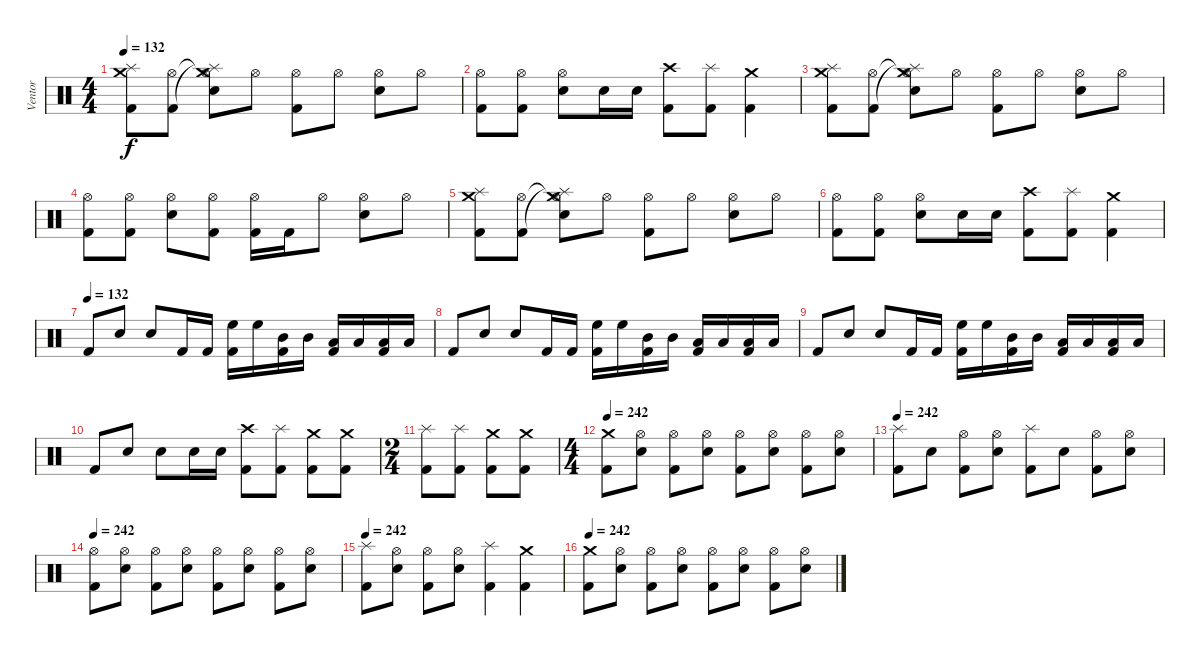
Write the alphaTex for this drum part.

\track ("Ventor" "Ventor") {instrument percussion}
\staff {score}
\articulation defaults
\ts (4 4)
\tempo 132
\clef neutral
\ks c
("Crash medium (hit)" "Splash (hit)" "Kick (hit) 2").8{dy f} ("Hi-Hat (open)" "Kick (hit) 2").8 ("Crash medium (hit)"{t} "Splash (hit)"{t} "Hi-Hat (open)" "Snare (hit) 2").8 "Hi-Hat (open)".8 ("Hi-Hat (open)" "Kick (hit) 2").8 "Hi-Hat (open)".8 ("Hi-Hat (open)" "Snare (hit) 2").8 "Hi-Hat (open)".8 |
("Hi-Hat (open)" "Kick (hit) 2").8 ("Hi-Hat (open)" "Kick (hit) 2").8 ("Hi-Hat (open)" "Snare (hit) 2").8 "Snare (hit) 2".16 "Snare (hit) 2".16 ("Crash high (hit)" "Kick (hit) 2").8 ("Splash (hit)" "Kick (hit) 2").8 ("Crash medium (hit)" "Kick (hit) 2").4 |
("Crash medium (hit)" "Splash (hit)" "Kick (hit) 2").8 ("Hi-Hat (open)" "Kick (hit) 2").8 ("Crash medium (hit)"{t} "Splash (hit)"{t} "Hi-Hat (open)" "Snare (hit) 2").8 "Hi-Hat (open)".8 ("Hi-Hat (open)" "Kick (hit) 2").8 "Hi-Hat (open)".8 ("Hi-Hat (open)" "Snare (hit) 2").8 "Hi-Hat (open)".8 |
("Hi-Hat (open)" "Kick (hit) 2").8 ("Hi-Hat (open)" "Kick (hit) 2").8 ("Hi-Hat (open)" "Snare (hit) 2").8 ("Hi-Hat (open)" "Kick (hit) 2").8 ("Hi-Hat (open)" "Kick (hit) 2").16 "Kick (hit) 2".16 "Hi-Hat (open)".8 ("Hi-Hat (open)" "Snare (hit) 2").8 "Hi-Hat (open)".8 |
("Crash medium (hit)" "Splash (hit)" "Kick (hit) 2").8 ("Hi-Hat (open)" "Kick (hit) 2").8 ("Crash medium (hit)"{t} "Splash (hit)"{t} "Hi-Hat (open)" "Snare (hit) 2").8 "Hi-Hat (open)".8 ("Hi-Hat (open)" "Kick (hit) 2").8 "Hi-Hat (open)".8 ("Hi-Hat (open)" "Snare (hit) 2").8 "Hi-Hat (open)".8 |
("Hi-Hat (open)" "Kick (hit) 2").8 ("Hi-Hat (open)" "Kick (hit) 2").8 ("Hi-Hat (open)" "Snare (hit) 2").8 "Snare (hit) 2".16 "Snare (hit) 2".16 ("Crash high (hit)" "Kick (hit) 2").8 ("Splash (hit)" "Kick (hit) 2").8 ("Crash medium (hit)" "Kick (hit) 2").4 |
\tempo (132)
"Kick (hit) 2".8 "Snare (hit) 2".8 "Snare (hit) 2".8 "Kick (hit) 2".16 "Kick (hit) 2".16 ("High Floor Tom (hit)" "Kick (hit) 2").16 "High Floor Tom (hit)".16 ("Mid Tom (hit)" "Kick (hit) 2").16 "Mid Tom (hit)".16 ("Low Tom (hit)" "Kick (hit) 2").16 "Low Tom (hit)".16 ("Low Floor Tom (hit)" "Kick (hit) 2").16 "Low Floor Tom (hit)".16 |
"Kick (hit) 2".8 "Snare (hit) 2".8 "Snare (hit) 2".8 "Kick (hit) 2".16 "Kick (hit) 2".16 ("High Floor Tom (hit)" "Kick (hit) 2").16 "High Floor Tom (hit)".16 ("Mid Tom (hit)" "Kick (hit) 2").16 "Mid Tom (hit)".16 ("Low Tom (hit)" "Kick (hit) 2").16 "Low Tom (hit)".16 ("Low Floor Tom (hit)" "Kick (hit) 2").16 "Low Floor Tom (hit)".16 |
"Kick (hit) 2".8 "Snare (hit) 2".8 "Snare (hit) 2".8 "Kick (hit) 2".16 "Kick (hit) 2".16 ("High Floor Tom (hit)" "Kick (hit) 2").16 "High Floor Tom (hit)".16 ("Mid Tom (hit)" "Kick (hit) 2").16 "Mid Tom (hit)".16 ("Low Tom (hit)" "Kick (hit) 2").16 "Low Tom (hit)".16 ("Low Floor Tom (hit)" "Kick (hit) 2").16 "Low Floor Tom (hit)".16 |
"Kick (hit) 2".8 "Snare (hit) 2".8 "Snare (hit) 2".8 "Snare (hit) 2".16 "Snare (hit) 2".16 ("Crash high (hit)" "Kick (hit) 2").8 ("Splash (hit)" "Kick (hit) 2").8 ("Crash medium (hit)" "Kick (hit) 2").8 ("Crash medium (hit)" "Kick (hit) 2").8 |
\ts (2 4)
("Splash (hit)" "Kick (hit) 2").8 ("Splash (hit)" "Kick (hit) 2").8 ("Crash medium (hit)" "Kick (hit) 2").8 ("Crash medium (hit)" "Kick (hit) 2").8 |
\ts (4 4)
\tempo 242
("Crash medium (hit)" "Kick (hit) 2").8 ("Hi-Hat (open)" "Snare (hit) 2").8 ("Hi-Hat (open)" "Kick (hit) 2").8 ("Hi-Hat (open)" "Snare (hit) 2").8 ("Hi-Hat (open)" "Kick (hit) 2").8 ("Hi-Hat (open)" "Snare (hit) 2").8 ("Hi-Hat (open)" "Kick (hit) 2").8 ("Hi-Hat (open)" "Snare (hit) 2").8 |
\tempo 242
("Splash (hit)" "Kick (hit) 2").8 "Snare (hit) 2".8 ("Hi-Hat (open)" "Kick (hit) 2").8 ("Hi-Hat (open)" "Snare (hit) 2").8 ("Splash (hit)" "Kick (hit) 2").8 "Snare (hit) 2".8 ("Hi-Hat (open)" "Kick (hit) 2").8 ("Hi-Hat (open)" "Snare (hit) 2").8 |
\tempo 242
("Hi-Hat (open)" "Kick (hit) 2").8 ("Hi-Hat (open)" "Snare (hit) 2").8 ("Hi-Hat (open)" "Kick (hit) 2").8 ("Hi-Hat (open)" "Snare (hit) 2").8 ("Hi-Hat (open)" "Kick (hit) 2").8 ("Hi-Hat (open)" "Snare (hit) 2").8 ("Hi-Hat (open)" "Kick (hit) 2").8 ("Hi-Hat (open)" "Snare (hit) 2").8 |
\tempo 242
("Splash (hit)" "Kick (hit) 2").8 ("Hi-Hat (open)" "Snare (hit) 2").8 ("Hi-Hat (open)" "Kick (hit) 2").8 ("Hi-Hat (open)" "Snare (hit) 2").8 ("Splash (hit)" "Kick (hit) 2").4 ("Crash medium (hit)" "Kick (hit) 2").4 |
\tempo 242
("Crash medium (hit)" "Kick (hit) 2").8 ("Hi-Hat (open)" "Snare (hit) 2").8 ("Hi-Hat (open)" "Kick (hit) 2").8 ("Hi-Hat (open)" "Snare (hit) 2").8 ("Hi-Hat (open)" "Kick (hit) 2").8 ("Hi-Hat (open)" "Snare (hit) 2").8 ("Hi-Hat (open)" "Kick (hit) 2").8 ("Hi-Hat (open)" "Snare (hit) 2").8
